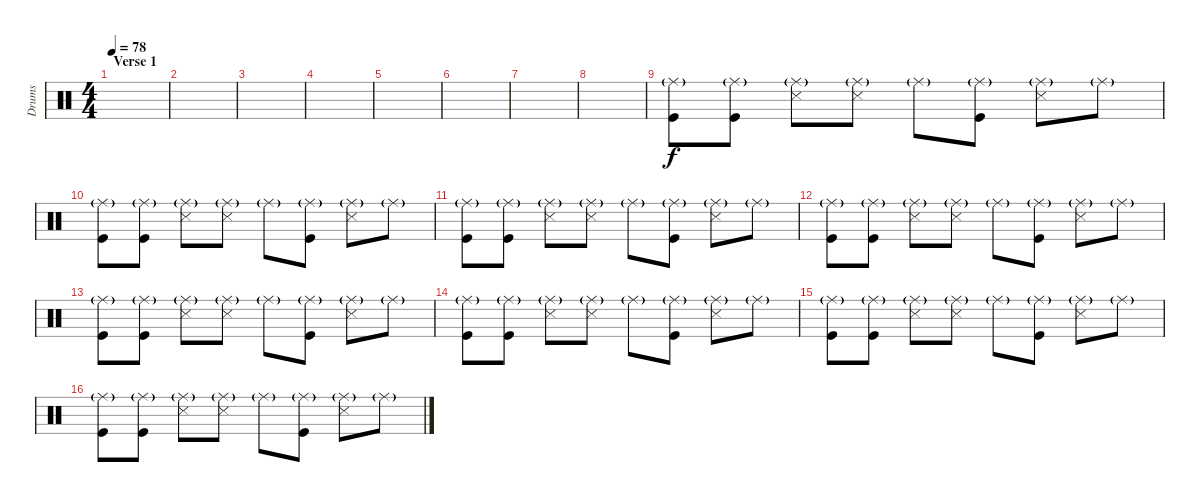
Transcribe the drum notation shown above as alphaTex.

\track ("Drums" "Drums") {instrument percussion}
\staff {score}
\articulation defaults
\ts (4 4)
\section ("" "Verse 1")
\tempo 78
\clef neutral
\ks c
|
|
|
|
|
|
|
|
\section ("" "")
("Ride (middle)"{g} "Kick (hit)").8 ("Ride (middle)"{g} "Kick (hit)").8 ("Ride (middle)"{g} "Snare (side stick) 3").8 ("Ride (middle)"{g} "Snare (side stick) 3").8 "Ride (middle)"{g}.8 ("Ride (middle)"{g} "Kick (hit)").8 ("Ride (middle)"{g} "Snare (side stick) 3").8 "Ride (middle)"{g}.8 |
("Ride (middle)"{g} "Kick (hit)").8 ("Ride (middle)"{g} "Kick (hit)").8 ("Ride (middle)"{g} "Snare (side stick) 3").8 ("Ride (middle)"{g} "Snare (side stick) 3").8 "Ride (middle)"{g}.8 ("Ride (middle)"{g} "Kick (hit)").8 ("Ride (middle)"{g} "Snare (side stick) 3").8 "Ride (middle)"{g}.8 |
("Ride (middle)"{g} "Kick (hit)").8 ("Ride (middle)"{g} "Kick (hit)").8 ("Ride (middle)"{g} "Snare (side stick) 3").8 ("Ride (middle)"{g} "Snare (side stick) 3").8 "Ride (middle)"{g}.8 ("Ride (middle)"{g} "Kick (hit)").8 ("Ride (middle)"{g} "Snare (side stick) 3").8 "Ride (middle)"{g}.8 |
("Ride (middle)"{g} "Kick (hit)").8 ("Ride (middle)"{g} "Kick (hit)").8 ("Ride (middle)"{g} "Snare (side stick) 3").8 ("Ride (middle)"{g} "Snare (side stick) 3").8 "Ride (middle)"{g}.8 ("Ride (middle)"{g} "Kick (hit)").8 ("Ride (middle)"{g} "Snare (side stick) 3").8 "Ride (middle)"{g}.8 |
("Ride (middle)"{g} "Kick (hit)").8 ("Ride (middle)"{g} "Kick (hit)").8 ("Ride (middle)"{g} "Snare (side stick) 3").8 ("Ride (middle)"{g} "Snare (side stick) 3").8 "Ride (middle)"{g}.8 ("Ride (middle)"{g} "Kick (hit)").8 ("Ride (middle)"{g} "Snare (side stick) 3").8 "Ride (middle)"{g}.8 |
("Ride (middle)"{g} "Kick (hit)").8 ("Ride (middle)"{g} "Kick (hit)").8 ("Ride (middle)"{g} "Snare (side stick) 3").8 ("Ride (middle)"{g} "Snare (side stick) 3").8 "Ride (middle)"{g}.8 ("Ride (middle)"{g} "Kick (hit)").8 ("Ride (middle)"{g} "Snare (side stick) 3").8 "Ride (middle)"{g}.8 |
("Ride (middle)"{g} "Kick (hit)").8 ("Ride (middle)"{g} "Kick (hit)").8 ("Ride (middle)"{g} "Snare (side stick) 3").8 ("Ride (middle)"{g} "Snare (side stick) 3").8 "Ride (middle)"{g}.8 ("Ride (middle)"{g} "Kick (hit)").8 ("Ride (middle)"{g} "Snare (side stick) 3").8 "Ride (middle)"{g}.8 |
("Ride (middle)"{g} "Kick (hit)").8 ("Ride (middle)"{g} "Kick (hit)").8 ("Ride (middle)"{g} "Snare (side stick) 3").8 ("Ride (middle)"{g} "Snare (side stick) 3").8 "Ride (middle)"{g}.8 ("Ride (middle)"{g} "Kick (hit)").8 ("Ride (middle)"{g} "Snare (side stick) 3").8 "Ride (middle)"{g}.8
